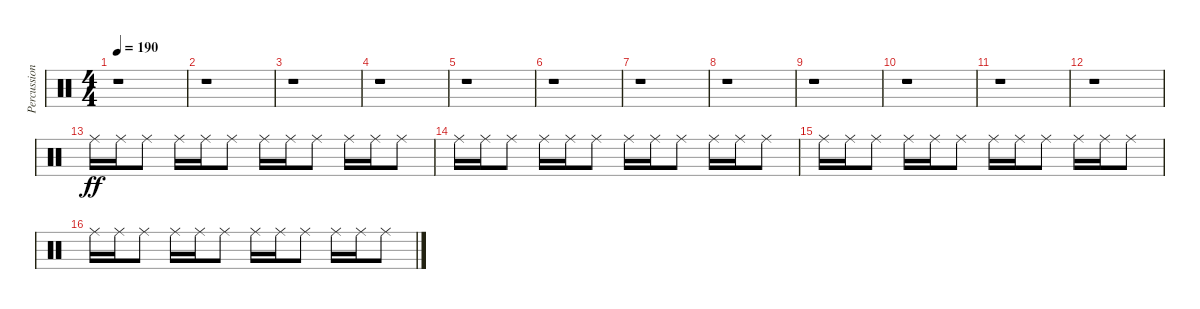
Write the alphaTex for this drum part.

\track ("Percussion" "Percussion") {instrument percussion}
\staff {score}
\articulation defaults
\ts (4 4)
\tempo 190
\clef neutral
\ks c
r.1{dy ff} |
r.1 |
r.1 |
r.1 |
r.1 |
r.1 |
r.1 |
r.1 |
r.1 |
r.1 |
r.1 |
r.1 |
"Ride (middle)".16 "Ride (middle)".16 "Ride (middle)".8 "Ride (middle)".16 "Ride (middle)".16 "Ride (middle)".8 "Ride (middle)".16 "Ride (middle)".16 "Ride (middle)".8 "Ride (middle)".16 "Ride (middle)".16 "Ride (middle)".8 |
"Ride (middle)".16 "Ride (middle)".16 "Ride (middle)".8 "Ride (middle)".16 "Ride (middle)".16 "Ride (middle)".8 "Ride (middle)".16 "Ride (middle)".16 "Ride (middle)".8 "Ride (middle)".16 "Ride (middle)".16 "Ride (middle)".8 |
"Ride (middle)".16 "Ride (middle)".16 "Ride (middle)".8 "Ride (middle)".16 "Ride (middle)".16 "Ride (middle)".8 "Ride (middle)".16 "Ride (middle)".16 "Ride (middle)".8 "Ride (middle)".16 "Ride (middle)".16 "Ride (middle)".8 |
"Ride (middle)".16 "Ride (middle)".16 "Ride (middle)".8 "Ride (middle)".16 "Ride (middle)".16 "Ride (middle)".8 "Ride (middle)".16 "Ride (middle)".16 "Ride (middle)".8 "Ride (middle)".16 "Ride (middle)".16 "Ride (middle)".8
